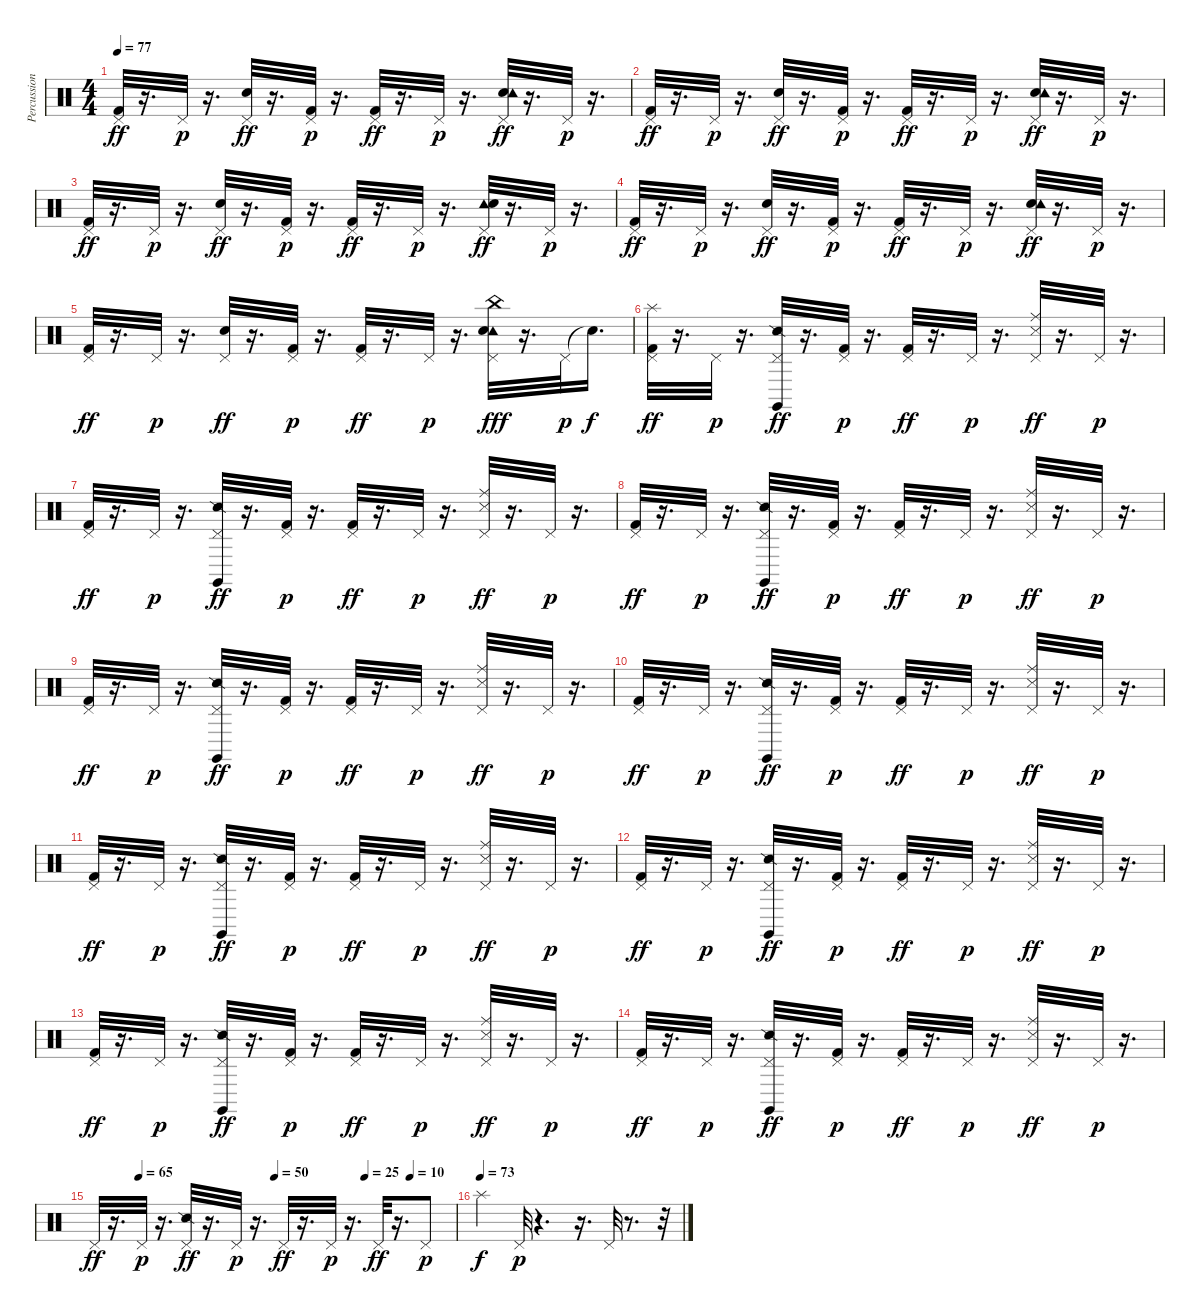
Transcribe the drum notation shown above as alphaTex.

\track ("Percussion" "Percussion") {instrument percussion}
\staff {score}
\articulation defaults
\ts (4 4)
\tempo 77
\clef neutral
\ks c
("Kick (hit) 2" "Pedal Hi-Hat (hit)").32{dy ff} r.16{d} "Pedal Hi-Hat (hit)".32{dy p} r.16{d} ("Electric Snare (hit)" "Pedal Hi-Hat (hit)").32{dy ff} r.16{d} ("Kick (hit) 2" "Pedal Hi-Hat (hit)").32{dy p} r.16{d} ("Kick (hit) 2" "Pedal Hi-Hat (hit)").32{dy ff} r.16{d} "Pedal Hi-Hat (hit)".32{dy p} r.16{d} ("Electric Snare (hit)" "Tambourine (hit)" "Pedal Hi-Hat (hit)").32{dy ff} r.16{d} "Pedal Hi-Hat (hit)".32{dy p} r.16{d} |
("Kick (hit) 2" "Pedal Hi-Hat (hit)").32{dy ff} r.16{d} "Pedal Hi-Hat (hit)".32{dy p} r.16{d} ("Electric Snare (hit)" "Pedal Hi-Hat (hit)").32{dy ff} r.16{d} ("Kick (hit) 2" "Pedal Hi-Hat (hit)").32{dy p} r.16{d} ("Kick (hit) 2" "Pedal Hi-Hat (hit)").32{dy ff} r.16{d} "Pedal Hi-Hat (hit)".32{dy p} r.16{d} ("Electric Snare (hit)" "Tambourine (hit)" "Pedal Hi-Hat (hit)").32{dy ff} r.16{d} "Pedal Hi-Hat (hit)".32{dy p} r.16{d} |
("Kick (hit) 2" "Pedal Hi-Hat (hit)").32{dy ff} r.16{d} "Pedal Hi-Hat (hit)".32{dy p} r.16{d} ("Electric Snare (hit)" "Pedal Hi-Hat (hit)").32{dy ff} r.16{d} ("Kick (hit) 2" "Pedal Hi-Hat (hit)").32{dy p} r.16{d} ("Kick (hit) 2" "Pedal Hi-Hat (hit)").32{dy ff} r.16{d} "Pedal Hi-Hat (hit)".32{dy p} r.16{d} ("Tambourine (hit)" "Electric Snare (hit)" "Pedal Hi-Hat (hit)").32{dy ff} r.16{d} "Pedal Hi-Hat (hit)".32{dy p} r.16{d} |
("Kick (hit) 2" "Pedal Hi-Hat (hit)").32{dy ff} r.16{d} "Pedal Hi-Hat (hit)".32{dy p} r.16{d} ("Electric Snare (hit)" "Pedal Hi-Hat (hit)").32{dy ff} r.16{d} ("Kick (hit) 2" "Pedal Hi-Hat (hit)").32{dy p} r.16{d} ("Kick (hit) 2" "Pedal Hi-Hat (hit)").32{dy ff} r.16{d} "Pedal Hi-Hat (hit)".32{dy p} r.16{d} ("Electric Snare (hit)" "Tambourine (hit)" "Pedal Hi-Hat (hit)").32{dy ff} r.16{d} "Pedal Hi-Hat (hit)".32{dy p} r.16{d} |
("Kick (hit) 2" "Pedal Hi-Hat (hit)").32{dy ff} r.16{d} "Pedal Hi-Hat (hit)".32{dy p} r.16{d} ("Electric Snare (hit)" "Pedal Hi-Hat (hit)").32{dy ff} r.16{d} ("Kick (hit) 2" "Pedal Hi-Hat (hit)").32{dy p} r.16{d} ("Kick (hit) 2" "Pedal Hi-Hat (hit)").32{dy ff} r.16{d} "Pedal Hi-Hat (hit)".32{dy p} r.16{d} ("Tambourine (hit)" "Electric Snare (hit)" "Pedal Hi-Hat (hit)" "China (hit)").32{dy fff} r.16{d} "Pedal Hi-Hat (hit)".32{dy p} "Snare (hit)"{t}.16{d dy f} |
("Kick (hit) 2" "Pedal Hi-Hat (hit)" "Splash (hit)").32{dy ff} r.16{d} "Pedal Hi-Hat (hit)".32{dy p} r.16{d} ("Snare (side stick) 2" "Claves (hit)" "Pedal Hi-Hat (hit)").32{dy ff} r.16{d} ("Kick (hit) 2" "Pedal Hi-Hat (hit)").32{dy p} r.16{d} ("Kick (hit) 2" "Pedal Hi-Hat (hit)").32{dy ff} r.16{d} "Pedal Hi-Hat (hit)".32{dy p} r.16{d} ("Snare (side stick) 3" "Ride (middle)" "Pedal Hi-Hat (hit)").32{dy ff} r.16{d} "Pedal Hi-Hat (hit)".32{dy p} r.16{d} |
("Kick (hit) 2" "Pedal Hi-Hat (hit)").32{dy ff} r.16{d} "Pedal Hi-Hat (hit)".32{dy p} r.16{d} ("Snare (side stick) 2" "Claves (hit)" "Pedal Hi-Hat (hit)").32{dy ff} r.16{d} ("Kick (hit) 2" "Pedal Hi-Hat (hit)").32{dy p} r.16{d} ("Kick (hit) 2" "Pedal Hi-Hat (hit)").32{dy ff} r.16{d} "Pedal Hi-Hat (hit)".32{dy p} r.16{d} ("Ride (middle)" "Snare (side stick) 3" "Pedal Hi-Hat (hit)").32{dy ff} r.16{d} "Pedal Hi-Hat (hit)".32{dy p} r.16{d} |
("Kick (hit) 2" "Pedal Hi-Hat (hit)").32{dy ff} r.16{d} "Pedal Hi-Hat (hit)".32{dy p} r.16{d} ("Claves (hit)" "Snare (side stick) 2" "Pedal Hi-Hat (hit)").32{dy ff} r.16{d} ("Kick (hit) 2" "Pedal Hi-Hat (hit)").32{dy p} r.16{d} ("Kick (hit) 2" "Pedal Hi-Hat (hit)").32{dy ff} r.16{d} "Pedal Hi-Hat (hit)".32{dy p} r.16{d} ("Ride (middle)" "Snare (side stick) 3" "Pedal Hi-Hat (hit)").32{dy ff} r.16{d} "Pedal Hi-Hat (hit)".32{dy p} r.16{d} |
("Kick (hit) 2" "Pedal Hi-Hat (hit)").32{dy ff} r.16{d} "Pedal Hi-Hat (hit)".32{dy p} r.16{d} ("Snare (side stick) 2" "Claves (hit)" "Pedal Hi-Hat (hit)").32{dy ff} r.16{d} ("Kick (hit) 2" "Pedal Hi-Hat (hit)").32{dy p} r.16{d} ("Kick (hit) 2" "Pedal Hi-Hat (hit)").32{dy ff} r.16{d} "Pedal Hi-Hat (hit)".32{dy p} r.16{d} ("Ride (middle)" "Snare (side stick) 3" "Pedal Hi-Hat (hit)").32{dy ff} r.16{d} "Pedal Hi-Hat (hit)".32{dy p} r.16{d} |
("Kick (hit) 2" "Pedal Hi-Hat (hit)").32{dy ff} r.16{d} "Pedal Hi-Hat (hit)".32{dy p} r.16{d} ("Claves (hit)" "Snare (side stick) 2" "Pedal Hi-Hat (hit)").32{dy ff} r.16{d} ("Kick (hit) 2" "Pedal Hi-Hat (hit)").32{dy p} r.16{d} ("Kick (hit) 2" "Pedal Hi-Hat (hit)").32{dy ff} r.16{d} "Pedal Hi-Hat (hit)".32{dy p} r.16{d} ("Snare (side stick) 3" "Ride (middle)" "Pedal Hi-Hat (hit)").32{dy ff} r.16{d} "Pedal Hi-Hat (hit)".32{dy p} r.16{d} |
("Kick (hit) 2" "Pedal Hi-Hat (hit)").32{dy ff} r.16{d} "Pedal Hi-Hat (hit)".32{dy p} r.16{d} ("Claves (hit)" "Snare (side stick) 2" "Pedal Hi-Hat (hit)").32{dy ff} r.16{d} ("Kick (hit) 2" "Pedal Hi-Hat (hit)").32{dy p} r.16{d} ("Kick (hit) 2" "Pedal Hi-Hat (hit)").32{dy ff} r.16{d} "Pedal Hi-Hat (hit)".32{dy p} r.16{d} ("Ride (middle)" "Snare (side stick) 3" "Pedal Hi-Hat (hit)").32{dy ff} r.16{d} "Pedal Hi-Hat (hit)".32{dy p} r.16{d} |
("Kick (hit) 2" "Pedal Hi-Hat (hit)").32{dy ff} r.16{d} "Pedal Hi-Hat (hit)".32{dy p} r.16{d} ("Claves (hit)" "Snare (side stick) 2" "Pedal Hi-Hat (hit)").32{dy ff} r.16{d} ("Kick (hit) 2" "Pedal Hi-Hat (hit)").32{dy p} r.16{d} ("Kick (hit) 2" "Pedal Hi-Hat (hit)").32{dy ff} r.16{d} "Pedal Hi-Hat (hit)".32{dy p} r.16{d} ("Ride (middle)" "Snare (side stick) 3" "Pedal Hi-Hat (hit)").32{dy ff} r.16{d} "Pedal Hi-Hat (hit)".32{dy p} r.16{d} |
("Kick (hit) 2" "Pedal Hi-Hat (hit)").32{dy ff} r.16{d} "Pedal Hi-Hat (hit)".32{dy p} r.16{d} ("Claves (hit)" "Snare (side stick) 2" "Pedal Hi-Hat (hit)").32{dy ff} r.16{d} ("Kick (hit) 2" "Pedal Hi-Hat (hit)").32{dy p} r.16{d} ("Kick (hit) 2" "Pedal Hi-Hat (hit)").32{dy ff} r.16{d} "Pedal Hi-Hat (hit)".32{dy p} r.16{d} ("Snare (side stick) 3" "Ride (middle)" "Pedal Hi-Hat (hit)").32{dy ff} r.16{d} "Pedal Hi-Hat (hit)".32{dy p} r.16{d} |
("Kick (hit) 2" "Pedal Hi-Hat (hit)").32{dy ff} r.16{d} "Pedal Hi-Hat (hit)".32{dy p} r.16{d} ("Claves (hit)" "Snare (side stick) 2" "Pedal Hi-Hat (hit)").32{dy ff} r.16{d} ("Kick (hit) 2" "Pedal Hi-Hat (hit)").32{dy p} r.16{d} ("Kick (hit) 2" "Pedal Hi-Hat (hit)").32{dy ff} r.16{d} "Pedal Hi-Hat (hit)".32{dy p} r.16{d} ("Ride (middle)" "Snare (side stick) 3" "Pedal Hi-Hat (hit)").32{dy ff} r.16{d} "Pedal Hi-Hat (hit)".32{dy p} r.16{d} |
\tempo (65 0.125)
\tempo (50 0.5)
\tempo (25 0.75)
\tempo (10 0.875)
"Pedal Hi-Hat (hit)".32{dy ff} r.16{d} "Pedal Hi-Hat (hit)".32{dy p} r.16{d} ("Snare (side stick) 2" "Pedal Hi-Hat (hit)").32{dy ff} r.16{d} "Pedal Hi-Hat (hit)".32{dy p} r.16{d} "Pedal Hi-Hat (hit)".32{dy ff} r.16{d} "Pedal Hi-Hat (hit)".32{dy p} r.16{d} "Pedal Hi-Hat (hit)".32{dy ff} r.16{d} "Pedal Hi-Hat (hit)".8{dy p} |
\tempo 77
\tempo (73)
"Splash (hit)".4{dy f} "Pedal Hi-Hat (hit)".32{dy p} r.4{d} r.16{d} "Pedal Hi-Hat (hit)".32 r.8{d} r.32
